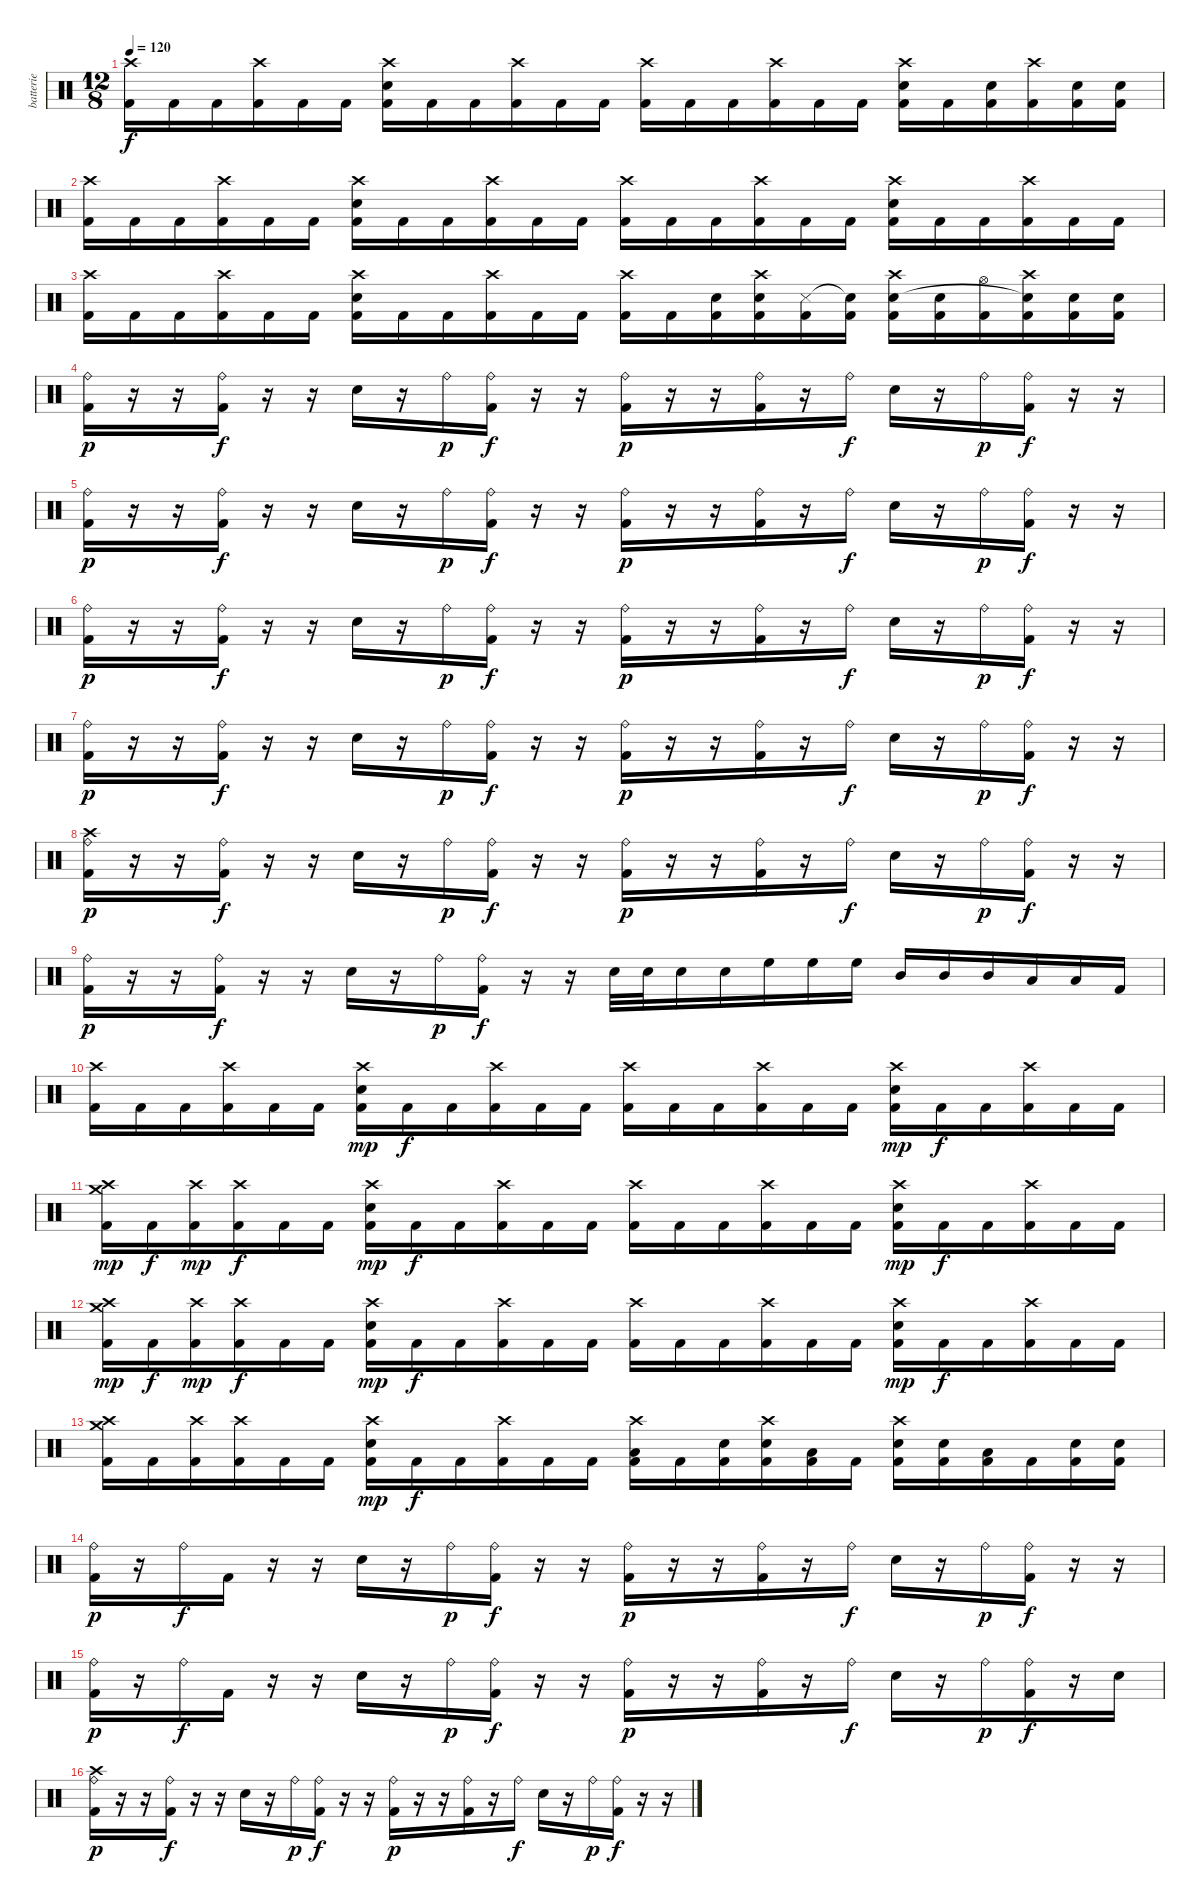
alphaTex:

\track ("batterie" "batterie") {instrument percussion}
\staff {score}
\articulation defaults
\ts (12 8)
\tempo 120
\clef neutral
\ks c
("Crash high (hit)" "Kick (hit) 2").16{dy f} "Kick (hit) 2".16 "Kick (hit) 2".16 ("Crash high (hit)" "Kick (hit) 2").16 "Kick (hit) 2".16 "Kick (hit) 2".16 ("Crash high (hit)" "Kick (hit) 2" "Snare (hit) 2").16 "Kick (hit) 2".16 "Kick (hit) 2".16 ("Crash high (hit)" "Kick (hit) 2").16 "Kick (hit) 2".16 "Kick (hit) 2".16 ("Crash high (hit)" "Kick (hit) 2").16 "Kick (hit) 2".16 "Kick (hit) 2".16 ("Crash high (hit)" "Kick (hit) 2").16 "Kick (hit) 2".16 "Kick (hit) 2".16 ("Crash high (hit)" "Kick (hit) 2" "Snare (hit) 2").16 "Kick (hit) 2".16 ("Kick (hit) 2" "Snare (hit) 2").16 ("Crash high (hit)" "Kick (hit) 2").16 ("Kick (hit) 2" "Snare (hit) 2").16 ("Kick (hit) 2" "Snare (hit) 2").16 |
("Crash high (hit)" "Kick (hit) 2").16 "Kick (hit) 2".16 "Kick (hit) 2".16 ("Crash high (hit)" "Kick (hit) 2").16 "Kick (hit) 2".16 "Kick (hit) 2".16 ("Crash high (hit)" "Kick (hit) 2" "Snare (hit) 2").16 "Kick (hit) 2".16 "Kick (hit) 2".16 ("Crash high (hit)" "Kick (hit) 2").16 "Kick (hit) 2".16 "Kick (hit) 2".16 ("Crash high (hit)" "Kick (hit) 2").16 "Kick (hit) 2".16 "Kick (hit) 2".16 ("Crash high (hit)" "Kick (hit) 2").16 "Kick (hit) 2".16 "Kick (hit) 2".16 ("Crash high (hit)" "Kick (hit) 2" "Snare (hit) 2").16 "Kick (hit) 2".16 "Kick (hit) 2".16 ("Crash high (hit)" "Kick (hit) 2").16 "Kick (hit) 2".16 "Kick (hit) 2".16 |
("Crash high (hit)" "Kick (hit) 2").16 "Kick (hit) 2".16 "Kick (hit) 2".16 ("Crash high (hit)" "Kick (hit) 2").16 "Kick (hit) 2".16 "Kick (hit) 2".16 ("Crash high (hit)" "Kick (hit) 2" "Snare (hit) 2").16 "Kick (hit) 2".16 "Kick (hit) 2".16 ("Crash high (hit)" "Kick (hit) 2").16 "Kick (hit) 2".16 "Kick (hit) 2".16 ("Crash high (hit)" "Kick (hit) 2").16 "Kick (hit) 2".16 ("Kick (hit) 2" "Snare (hit) 2").16 ("Crash high (hit)" "Kick (hit) 2" "Snare (hit) 2").16 ("Kick (hit) 2" "Snare (side stick) 3").16 ("Kick (hit) 2" "Snare (hit)"{t}).16 ("Crash high (hit)" "Kick (hit) 2" "Snare (hit) 2").16 ("Kick (hit) 2" "Snare (hit) 2").16 ("Kick (hit) 2" "Hi-Hat (open)").16 ("Crash high (hit)" "Kick (hit) 2" "Snare (hit)"{t}).16 ("Kick (hit) 2" "Snare (hit) 2").16 ("Kick (hit) 2" "Snare (hit) 2").16 |
("Ride (bell)" "Kick (hit) 2").16{dy p} r.16 r.16 ("Ride (bell)" "Kick (hit) 2").16{dy f} r.16 r.16 "Snare (hit) 2".16 r.16 "Ride (bell)".16{dy p} ("Ride (bell)" "Kick (hit) 2").16{dy f} r.16 r.16 ("Ride (bell)" "Kick (hit) 2").16{dy p} r.16 r.16 ("Ride (bell)" "Kick (hit) 2").16 r.16 "Ride (bell)".16{dy f} "Snare (hit) 2".16 r.16 "Ride (bell)".16{dy p} ("Ride (bell)" "Kick (hit) 2").16{dy f} r.16 r.16 |
("Ride (bell)" "Kick (hit) 2").16{dy p} r.16 r.16 ("Ride (bell)" "Kick (hit) 2").16{dy f} r.16 r.16 "Snare (hit) 2".16 r.16 "Ride (bell)".16{dy p} ("Ride (bell)" "Kick (hit) 2").16{dy f} r.16 r.16 ("Ride (bell)" "Kick (hit) 2").16{dy p} r.16 r.16 ("Ride (bell)" "Kick (hit) 2").16 r.16 "Ride (bell)".16{dy f} "Snare (hit) 2".16 r.16 "Ride (bell)".16{dy p} ("Ride (bell)" "Kick (hit) 2").16{dy f} r.16 r.16 |
("Ride (bell)" "Kick (hit) 2").16{dy p} r.16 r.16 ("Ride (bell)" "Kick (hit) 2").16{dy f} r.16 r.16 "Snare (hit) 2".16 r.16 "Ride (bell)".16{dy p} ("Ride (bell)" "Kick (hit) 2").16{dy f} r.16 r.16 ("Ride (bell)" "Kick (hit) 2").16{dy p} r.16 r.16 ("Ride (bell)" "Kick (hit) 2").16 r.16 "Ride (bell)".16{dy f} "Snare (hit) 2".16 r.16 "Ride (bell)".16{dy p} ("Ride (bell)" "Kick (hit) 2").16{dy f} r.16 r.16 |
("Ride (bell)" "Kick (hit) 2").16{dy p} r.16 r.16 ("Ride (bell)" "Kick (hit) 2").16{dy f} r.16 r.16 "Snare (hit) 2".16 r.16 "Ride (bell)".16{dy p} ("Ride (bell)" "Kick (hit) 2").16{dy f} r.16 r.16 ("Ride (bell)" "Kick (hit) 2").16{dy p} r.16 r.16 ("Ride (bell)" "Kick (hit) 2").16 r.16 "Ride (bell)".16{dy f} "Snare (hit) 2".16 r.16 "Ride (bell)".16{dy p} ("Ride (bell)" "Kick (hit) 2").16{dy f} r.16 r.16 |
("Ride (bell)" "Kick (hit) 2" "Crash high (hit)").16{dy p} r.16 r.16 ("Ride (bell)" "Kick (hit) 2").16{dy f} r.16 r.16 "Snare (hit) 2".16 r.16 "Ride (bell)".16{dy p} ("Ride (bell)" "Kick (hit) 2").16{dy f} r.16 r.16 ("Ride (bell)" "Kick (hit) 2").16{dy p} r.16 r.16 ("Ride (bell)" "Kick (hit) 2").16 r.16 "Ride (bell)".16{dy f} "Snare (hit) 2".16 r.16 "Ride (bell)".16{dy p} ("Ride (bell)" "Kick (hit) 2").16{dy f} r.16 r.16 |
("Ride (bell)" "Kick (hit) 2").16{dy p} r.16 r.16 ("Ride (bell)" "Kick (hit) 2").16{dy f} r.16 r.16 "Snare (hit) 2".16 r.16 "Ride (bell)".16{dy p} ("Ride (bell)" "Kick (hit) 2").16{dy f} r.16 r.16 "Snare (hit) 2".32 "Snare (hit) 2".32 "Snare (hit) 2".16 "Snare (hit) 2".16 "High Floor Tom (hit)".16 "High Floor Tom (hit)".16 "High Floor Tom (hit)".16 "Mid Tom (hit)".16 "Mid Tom (hit)".16 "Mid Tom (hit)".16 "Low Tom (hit)".16 "Low Tom (hit)".16 "Kick (hit) 2".16 |
("Crash high (hit)" "Kick (hit) 2").16 "Kick (hit) 2".16 "Kick (hit) 2".16 ("Crash high (hit)" "Kick (hit) 2").16 "Kick (hit) 2".16 "Kick (hit) 2".16 ("Crash high (hit)" "Kick (hit) 2" "Snare (hit) 2").16{dy mp} "Kick (hit) 2".16{dy f} "Kick (hit) 2".16 ("Crash high (hit)" "Kick (hit) 2").16 "Kick (hit) 2".16 "Kick (hit) 2".16 ("Crash high (hit)" "Kick (hit) 2").16 "Kick (hit) 2".16 "Kick (hit) 2".16 ("Crash high (hit)" "Kick (hit) 2").16 "Kick (hit) 2".16 "Kick (hit) 2".16 ("Crash high (hit)" "Kick (hit) 2" "Snare (hit) 2").16{dy mp} "Kick (hit) 2".16{dy f} "Kick (hit) 2".16 ("Crash high (hit)" "Kick (hit) 2").16 "Kick (hit) 2".16 "Kick (hit) 2".16 |
("Crash high (hit)" "Kick (hit) 2" "Crash medium (hit)").16{dy mp} "Kick (hit) 2".16{dy f} ("Kick (hit) 2" "Crash high (hit)").16{dy mp} ("Crash high (hit)" "Kick (hit) 2").16{dy f} "Kick (hit) 2".16 "Kick (hit) 2".16 ("Crash high (hit)" "Kick (hit) 2" "Snare (hit) 2").16{dy mp} "Kick (hit) 2".16{dy f} "Kick (hit) 2".16 ("Crash high (hit)" "Kick (hit) 2").16 "Kick (hit) 2".16 "Kick (hit) 2".16 ("Crash high (hit)" "Kick (hit) 2").16 "Kick (hit) 2".16 "Kick (hit) 2".16 ("Crash high (hit)" "Kick (hit) 2").16 "Kick (hit) 2".16 "Kick (hit) 2".16 ("Crash high (hit)" "Kick (hit) 2" "Snare (hit) 2").16{dy mp} "Kick (hit) 2".16{dy f} "Kick (hit) 2".16 ("Crash high (hit)" "Kick (hit) 2").16 "Kick (hit) 2".16 "Kick (hit) 2".16 |
("Crash high (hit)" "Kick (hit) 2" "Crash medium (hit)").16{dy mp} "Kick (hit) 2".16{dy f} ("Kick (hit) 2" "Crash high (hit)").16{dy mp} ("Crash high (hit)" "Kick (hit) 2").16{dy f} "Kick (hit) 2".16 "Kick (hit) 2".16 ("Crash high (hit)" "Kick (hit) 2" "Snare (hit) 2").16{dy mp} "Kick (hit) 2".16{dy f} "Kick (hit) 2".16 ("Crash high (hit)" "Kick (hit) 2").16 "Kick (hit) 2".16 "Kick (hit) 2".16 ("Crash high (hit)" "Kick (hit) 2").16 "Kick (hit) 2".16 "Kick (hit) 2".16 ("Crash high (hit)" "Kick (hit) 2").16 "Kick (hit) 2".16 "Kick (hit) 2".16 ("Crash high (hit)" "Kick (hit) 2" "Snare (hit) 2").16{dy mp} "Kick (hit) 2".16{dy f} "Kick (hit) 2".16 ("Crash high (hit)" "Kick (hit) 2").16 "Kick (hit) 2".16 "Kick (hit) 2".16 |
("Crash high (hit)" "Kick (hit) 2" "Crash medium (hit)").16 "Kick (hit) 2".16 ("Kick (hit) 2" "Crash high (hit)").16 ("Crash high (hit)" "Kick (hit) 2").16 "Kick (hit) 2".16 "Kick (hit) 2".16 ("Crash high (hit)" "Kick (hit) 2" "Snare (hit) 2").16{dy mp} "Kick (hit) 2".16{dy f} "Kick (hit) 2".16 ("Crash high (hit)" "Kick (hit) 2").16 "Kick (hit) 2".16 "Kick (hit) 2".16 ("Crash high (hit)" "Kick (hit) 2" "Low Floor Tom (hit)").16 "Kick (hit) 2".16 ("Kick (hit) 2" "Snare (hit) 2").16 ("Crash high (hit)" "Kick (hit) 2" "Snare (hit) 2").16 ("Kick (hit) 2" "Low Floor Tom (hit)").16 "Kick (hit) 2".16 ("Crash high (hit)" "Kick (hit) 2" "Snare (hit) 2").16 ("Kick (hit) 2" "Snare (hit) 2").16 ("Kick (hit) 2" "Low Floor Tom (hit)").16 "Kick (hit) 2".16 ("Kick (hit) 2" "Snare (hit) 2").16 ("Kick (hit) 2" "Snare (hit) 2").16 |
("Ride (bell)" "Kick (hit) 2").16{dy p} r.16 "Ride (bell)".16{dy f} "Kick (hit) 2".16 r.16 r.16 "Snare (hit) 2".16 r.16 "Ride (bell)".16{dy p} ("Ride (bell)" "Kick (hit) 2").16{dy f} r.16 r.16 ("Ride (bell)" "Kick (hit) 2").16{dy p} r.16 r.16 ("Ride (bell)" "Kick (hit) 2").16 r.16 "Ride (bell)".16{dy f} "Snare (hit) 2".16 r.16 "Ride (bell)".16{dy p} ("Ride (bell)" "Kick (hit) 2").16{dy f} r.16 r.16 |
("Ride (bell)" "Kick (hit) 2").16{dy p} r.16 "Ride (bell)".16{dy f} "Kick (hit) 2".16 r.16 r.16 "Snare (hit) 2".16 r.16 "Ride (bell)".16{dy p} ("Ride (bell)" "Kick (hit) 2").16{dy f} r.16 r.16 ("Ride (bell)" "Kick (hit) 2").16{dy p} r.16 r.16 ("Ride (bell)" "Kick (hit) 2").16 r.16 "Ride (bell)".16{dy f} "Snare (hit) 2".16 r.16 "Ride (bell)".16{dy p} ("Ride (bell)" "Kick (hit) 2").16{dy f} r.16 "Snare (hit) 2".16 |
("Ride (bell)" "Kick (hit) 2" "Crash high (hit)").16{dy p} r.16 r.16 ("Ride (bell)" "Kick (hit) 2").16{dy f} r.16 r.16 "Snare (hit) 2".16 r.16 "Ride (bell)".16{dy p} ("Ride (bell)" "Kick (hit) 2").16{dy f} r.16 r.16 ("Ride (bell)" "Kick (hit) 2").16{dy p} r.16 r.16 ("Ride (bell)" "Kick (hit) 2").16 r.16 "Ride (bell)".16{dy f} "Snare (hit) 2".16 r.16 "Ride (bell)".16{dy p} ("Ride (bell)" "Kick (hit) 2").16{dy f} r.16 r.16
